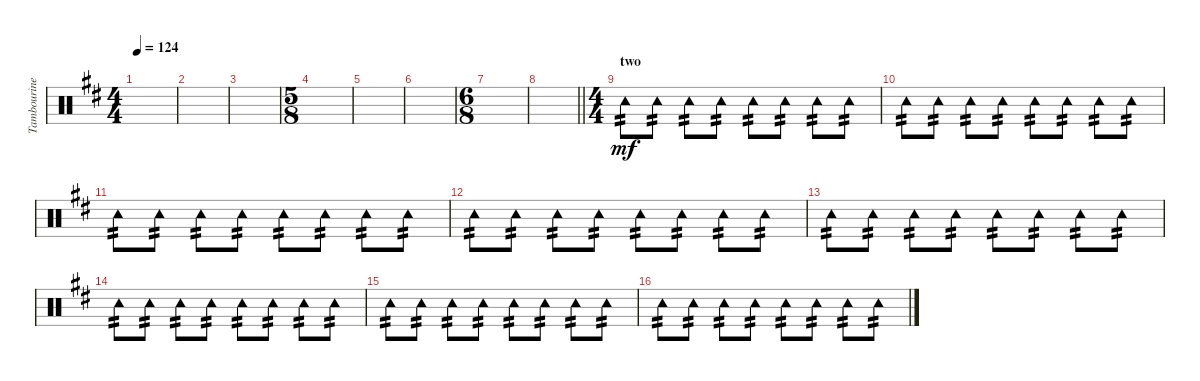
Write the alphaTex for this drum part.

\track ("Tambourine" "Tambourine") {instrument percussion}
\staff {score}
\articulation defaults
\ts (4 4)
\tempo 124
\clef neutral
\ks d
|
|
|
\ts (5 8)
|
|
|
\ts (6 8)
|
\barLineRight lightlight
|
\ts (4 4)
\section ("" "two")
"Tambourine (hit)".8{tp 2 dy mf} "Tambourine (hit)".8{tp 2} "Tambourine (hit)".8{tp 2} "Tambourine (hit)".8{tp 2} "Tambourine (hit)".8{tp 2} "Tambourine (hit)".8{tp 2} "Tambourine (hit)".8{tp 2} "Tambourine (hit)".8{tp 2} |
"Tambourine (hit)".8{tp 2} "Tambourine (hit)".8{tp 2} "Tambourine (hit)".8{tp 2} "Tambourine (hit)".8{tp 2} "Tambourine (hit)".8{tp 2} "Tambourine (hit)".8{tp 2} "Tambourine (hit)".8{tp 2} "Tambourine (hit)".8{tp 2} |
"Tambourine (hit)".8{tp 2} "Tambourine (hit)".8{tp 2} "Tambourine (hit)".8{tp 2} "Tambourine (hit)".8{tp 2} "Tambourine (hit)".8{tp 2} "Tambourine (hit)".8{tp 2} "Tambourine (hit)".8{tp 2} "Tambourine (hit)".8{tp 2} |
"Tambourine (hit)".8{tp 2} "Tambourine (hit)".8{tp 2} "Tambourine (hit)".8{tp 2} "Tambourine (hit)".8{tp 2} "Tambourine (hit)".8{tp 2} "Tambourine (hit)".8{tp 2} "Tambourine (hit)".8{tp 2} "Tambourine (hit)".8{tp 2} |
"Tambourine (hit)".8{tp 2} "Tambourine (hit)".8{tp 2} "Tambourine (hit)".8{tp 2} "Tambourine (hit)".8{tp 2} "Tambourine (hit)".8{tp 2} "Tambourine (hit)".8{tp 2} "Tambourine (hit)".8{tp 2} "Tambourine (hit)".8{tp 2} |
"Tambourine (hit)".8{tp 2} "Tambourine (hit)".8{tp 2} "Tambourine (hit)".8{tp 2} "Tambourine (hit)".8{tp 2} "Tambourine (hit)".8{tp 2} "Tambourine (hit)".8{tp 2} "Tambourine (hit)".8{tp 2} "Tambourine (hit)".8{tp 2} |
"Tambourine (hit)".8{tp 2} "Tambourine (hit)".8{tp 2} "Tambourine (hit)".8{tp 2} "Tambourine (hit)".8{tp 2} "Tambourine (hit)".8{tp 2} "Tambourine (hit)".8{tp 2} "Tambourine (hit)".8{tp 2} "Tambourine (hit)".8{tp 2} |
"Tambourine (hit)".8{tp 2} "Tambourine (hit)".8{tp 2} "Tambourine (hit)".8{tp 2} "Tambourine (hit)".8{tp 2} "Tambourine (hit)".8{tp 2} "Tambourine (hit)".8{tp 2} "Tambourine (hit)".8{tp 2} "Tambourine (hit)".8{tp 2}
